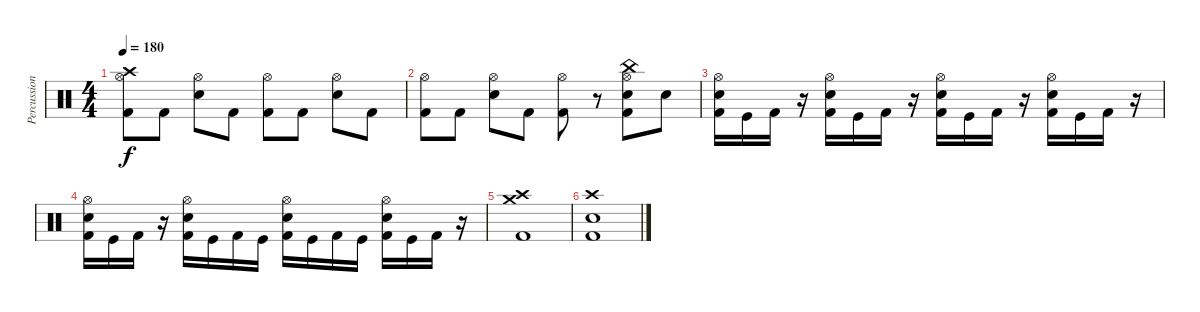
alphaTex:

\track ("Percussions" "Percussion") {instrument percussion}
\staff {score}
\articulation defaults
\ts (4 4)
\tempo 180
\clef neutral
\ks c
("Hi-Hat (open)" "Crash high (hit)" "Kick (hit) 2").8{dy f} "Kick (hit) 2".8 ("Hi-Hat (open)" "Snare (hit) 2").8 "Kick (hit) 2".8 ("Hi-Hat (open)" "Kick (hit) 2").8 "Kick (hit) 2".8 ("Hi-Hat (open)" "Snare (hit) 2").8 "Kick (hit) 2".8 |
("Hi-Hat (open)" "Kick (hit) 2").8 "Kick (hit) 2".8 ("Hi-Hat (open)" "Snare (hit) 2").8 "Kick (hit) 2".8 ("Hi-Hat (open)" "Kick (hit) 2").8 r.8 ("Hi-Hat (open)" "China (hit)" "Snare (hit) 2" "Kick (hit) 2").8 "Snare (hit) 2".8 |
("Hi-Hat (open)" "Snare (hit) 2" "Kick (hit) 2").16 "Kick (hit)".16 "Kick (hit) 2".16 r.16 ("Hi-Hat (open)" "Snare (hit) 2" "Kick (hit) 2").16 "Kick (hit)".16 "Kick (hit) 2".16 r.16 ("Hi-Hat (open)" "Snare (hit) 2" "Kick (hit) 2").16 "Kick (hit)".16 "Kick (hit) 2".16 r.16 ("Hi-Hat (open)" "Snare (hit) 2" "Kick (hit) 2").16 "Kick (hit)".16 "Kick (hit) 2".16 r.16 |
("Hi-Hat (open)" "Snare (hit) 2" "Kick (hit) 2").16 "Kick (hit)".16 "Kick (hit) 2".16 r.16 ("Hi-Hat (open)" "Snare (hit) 2" "Kick (hit) 2").16 "Kick (hit)".16 "Kick (hit) 2".16 "Kick (hit)".16 ("Hi-Hat (open)" "Snare (hit) 2" "Kick (hit) 2").16 "Kick (hit)".16 "Kick (hit) 2".16 "Kick (hit)".16 ("Hi-Hat (open)" "Snare (hit) 2" "Kick (hit) 2").16 "Kick (hit)".16 "Kick (hit) 2".16 r.16 |
("Crash high (hit)" "Crash medium (hit)" "Kick (hit) 2").1 |
("Crash high (hit)" "Snare (hit) 2" "Kick (hit) 2").1
